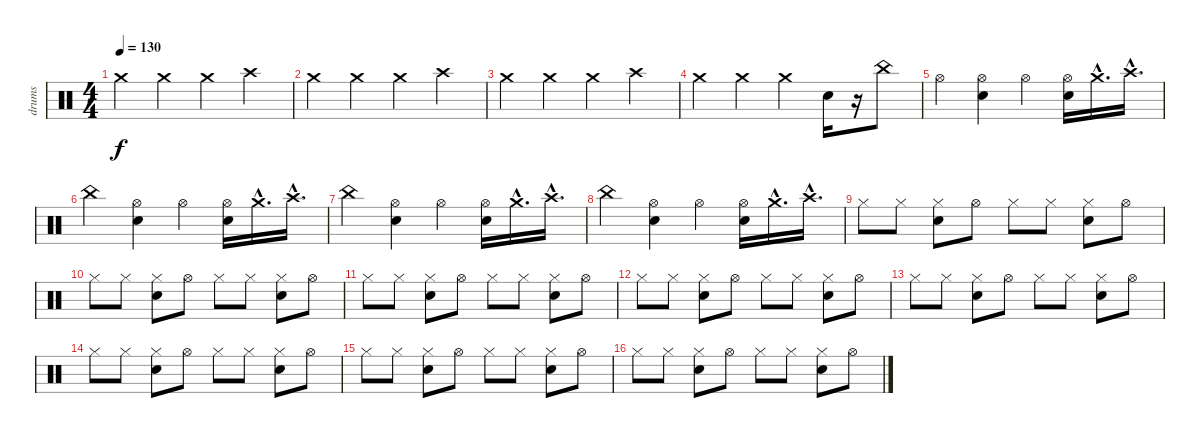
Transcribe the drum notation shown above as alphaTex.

\track ("drums" "drums") {instrument percussion}
\staff {score}
\articulation defaults
\ts (4 4)
\tempo 130
\clef neutral
\ks c "Crash medium (hit)".4{dy f} "Crash medium (hit)".4 "Crash medium (hit)".4 "Crash high (hit)".4
|
"Crash medium (hit)".4 "Crash medium (hit)".4 "Crash medium (hit)".4 "Crash high (hit)".4 |
"Crash medium (hit)".4 "Crash medium (hit)".4 "Crash medium (hit)".4 "Crash high (hit)".4 |
"Crash medium (hit)".4 "Crash medium (hit)".4 "Crash medium (hit)".4 "Snare (hit) 2".16 r.16 "China (hit)".8 |
"Hi-Hat (open)".4 ("Snare (hit) 2" "Hi-Hat (open)").4 "Hi-Hat (open)".4 ("Snare (hit) 2" "Hi-Hat (open)").16 "Crash medium (hit)"{hac}.16{d} "Crash high (hit)"{hac}.16{d} |
"China (hit)".4 ("Snare (hit) 2" "Hi-Hat (open)").4 "Hi-Hat (open)".4 ("Snare (hit) 2" "Hi-Hat (open)").16 "Crash medium (hit)"{hac}.16{d} "Crash high (hit)"{hac}.16{d} |
"China (hit)".4 ("Snare (hit) 2" "Hi-Hat (open)").4 "Hi-Hat (open)".4 ("Snare (hit) 2" "Hi-Hat (open)").16 "Crash medium (hit)"{hac}.16{d} "Crash high (hit)"{hac}.16{d} |
"China (hit)".4 ("Snare (hit) 2" "Hi-Hat (open)").4 "Hi-Hat (open)".4 ("Snare (hit) 2" "Hi-Hat (open)").16 "Crash medium (hit)"{hac}.16{d} "Crash high (hit)"{hac}.16{d} |
"Hi-Hat (closed)".8 "Hi-Hat (closed)".8 ("Snare (hit) 2" "Hi-Hat (closed)").8 "Hi-Hat (open)".8 "Hi-Hat (closed)".8 "Hi-Hat (closed)".8 ("Snare (hit) 2" "Hi-Hat (closed)").8 "Hi-Hat (open)".8 |
"Hi-Hat (closed)".8 "Hi-Hat (closed)".8 ("Snare (hit) 2" "Hi-Hat (closed)").8 "Hi-Hat (open)".8 "Hi-Hat (closed)".8 "Hi-Hat (closed)".8 ("Snare (hit) 2" "Hi-Hat (closed)").8 "Hi-Hat (open)".8 |
"Hi-Hat (closed)".8 "Hi-Hat (closed)".8 ("Snare (hit) 2" "Hi-Hat (closed)").8 "Hi-Hat (open)".8 "Hi-Hat (closed)".8 "Hi-Hat (closed)".8 ("Snare (hit) 2" "Hi-Hat (closed)").8 "Hi-Hat (open)".8 |
"Hi-Hat (closed)".8 "Hi-Hat (closed)".8 ("Snare (hit) 2" "Hi-Hat (closed)").8 "Hi-Hat (open)".8 "Hi-Hat (closed)".8 "Hi-Hat (closed)".8 ("Snare (hit) 2" "Hi-Hat (closed)").8 "Hi-Hat (open)".8 |
"Hi-Hat (closed)".8 "Hi-Hat (closed)".8 ("Snare (hit) 2" "Hi-Hat (closed)").8 "Hi-Hat (open)".8 "Hi-Hat (closed)".8 "Hi-Hat (closed)".8 ("Snare (hit) 2" "Hi-Hat (closed)").8 "Hi-Hat (open)".8 |
"Hi-Hat (closed)".8 "Hi-Hat (closed)".8 ("Snare (hit) 2" "Hi-Hat (closed)").8 "Hi-Hat (open)".8 "Hi-Hat (closed)".8 "Hi-Hat (closed)".8 ("Snare (hit) 2" "Hi-Hat (closed)").8 "Hi-Hat (open)".8 |
"Hi-Hat (closed)".8 "Hi-Hat (closed)".8 ("Snare (hit) 2" "Hi-Hat (closed)").8 "Hi-Hat (open)".8 "Hi-Hat (closed)".8 "Hi-Hat (closed)".8 ("Snare (hit) 2" "Hi-Hat (closed)").8 "Hi-Hat (open)".8 |
"Hi-Hat (closed)".8 "Hi-Hat (closed)".8 ("Snare (hit) 2" "Hi-Hat (closed)").8 "Hi-Hat (open)".8 "Hi-Hat (closed)".8 "Hi-Hat (closed)".8 ("Snare (hit) 2" "Hi-Hat (closed)").8 "Hi-Hat (open)".8
